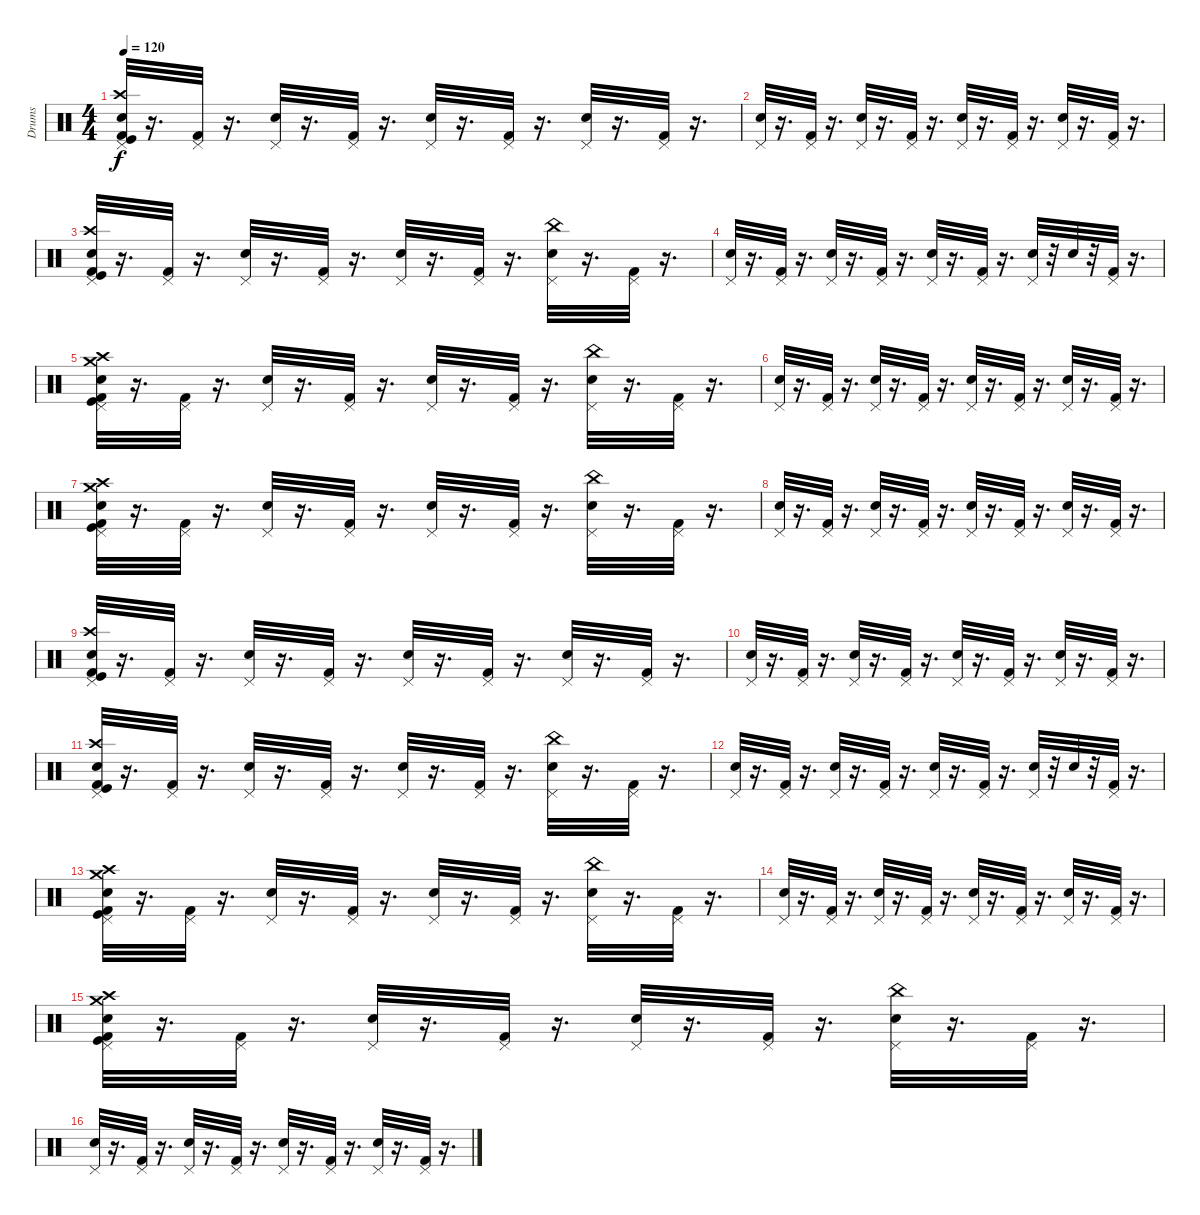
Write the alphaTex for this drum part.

\track ("Drums" "Drums") {instrument percussion}
\staff {score}
\articulation defaults
\ts (4 4)
\tempo 120
\clef neutral
\ks c
("Kick (hit) 2" "Crash high (hit)" "Pedal Hi-Hat (hit)" "Snare (hit) 2" "Kick (hit)").32{dy f} r.16{d} ("Kick (hit) 2" "Pedal Hi-Hat (hit)").32 r.16{d} ("Pedal Hi-Hat (hit)" "Snare (hit) 2").32 r.16{d} ("Pedal Hi-Hat (hit)" "Kick (hit) 2").32 r.16{d} ("Snare (hit) 2" "Pedal Hi-Hat (hit)").32 r.16{d} ("Pedal Hi-Hat (hit)" "Kick (hit) 2").32 r.16{d} ("Pedal Hi-Hat (hit)" "Snare (hit) 2").32 r.16{d} ("Pedal Hi-Hat (hit)" "Kick (hit) 2").32 r.16{d} |
("Snare (hit) 2" "Pedal Hi-Hat (hit)").32 r.16{d} ("Kick (hit) 2" "Pedal Hi-Hat (hit)").32 r.16{d} ("Pedal Hi-Hat (hit)" "Snare (hit) 2").32 r.16{d} ("Pedal Hi-Hat (hit)" "Kick (hit) 2").32 r.16{d} ("Pedal Hi-Hat (hit)" "Snare (hit) 2").32 r.16{d} ("Pedal Hi-Hat (hit)" "Kick (hit) 2").32 r.16{d} ("Pedal Hi-Hat (hit)" "Snare (hit) 2").32 r.16{d} ("Kick (hit) 2" "Pedal Hi-Hat (hit)").32 r.16{d} |
("Snare (hit) 2" "Pedal Hi-Hat (hit)" "Crash high (hit)" "Kick (hit)" "Kick (hit) 2").32 r.16{d} ("Pedal Hi-Hat (hit)" "Kick (hit) 2").32 r.16{d} ("Pedal Hi-Hat (hit)" "Snare (hit) 2").32 r.16{d} ("Pedal Hi-Hat (hit)" "Kick (hit) 2").32 r.16{d} ("Pedal Hi-Hat (hit)" "Snare (hit) 2").32 r.16{d} ("Pedal Hi-Hat (hit)" "Kick (hit) 2").32 r.16{d} ("China (hit)" "Pedal Hi-Hat (hit)" "Snare (hit) 2").32 r.16{d} ("Pedal Hi-Hat (hit)" "Kick (hit) 2").32 r.16{d} |
("Snare (hit) 2" "Pedal Hi-Hat (hit)").32 r.16{d} ("Kick (hit) 2" "Pedal Hi-Hat (hit)").32 r.16{d} ("Snare (hit) 2" "Pedal Hi-Hat (hit)").32 r.16{d} ("Pedal Hi-Hat (hit)" "Kick (hit) 2").32 r.16{d} ("Snare (hit) 2" "Pedal Hi-Hat (hit)").32 r.16{d} ("Pedal Hi-Hat (hit)" "Kick (hit) 2").32 r.16{d} ("Snare (hit) 2" "Pedal Hi-Hat (hit)").32 r.32 "Snare (hit) 2".32 r.32 ("Kick (hit) 2" "Pedal Hi-Hat (hit)").32 r.16{d} |
("Pedal Hi-Hat (hit)" "Kick (hit)" "Kick (hit) 2" "Crash medium (hit)" "Crash high (hit)" "Snare (hit) 2").32 r.16{d} ("Pedal Hi-Hat (hit)" "Kick (hit) 2").32 r.16{d} ("Snare (hit) 2" "Pedal Hi-Hat (hit)").32 r.16{d} ("Pedal Hi-Hat (hit)" "Kick (hit) 2").32 r.16{d} ("Snare (hit) 2" "Pedal Hi-Hat (hit)").32 r.16{d} ("Pedal Hi-Hat (hit)" "Kick (hit) 2").32 r.16{d} ("China (hit)" "Pedal Hi-Hat (hit)" "Snare (hit) 2").32 r.16{d} ("Pedal Hi-Hat (hit)" "Kick (hit) 2").32 r.16{d} |
("Pedal Hi-Hat (hit)" "Snare (hit) 2").32 r.16{d} ("Kick (hit) 2" "Pedal Hi-Hat (hit)").32 r.16{d} ("Pedal Hi-Hat (hit)" "Snare (hit) 2").32 r.16{d} ("Pedal Hi-Hat (hit)" "Kick (hit) 2").32 r.16{d} ("Pedal Hi-Hat (hit)" "Snare (hit) 2").32 r.16{d} ("Pedal Hi-Hat (hit)" "Kick (hit) 2").32 r.16{d} ("Pedal Hi-Hat (hit)" "Snare (hit) 2").32 r.16{d} ("Pedal Hi-Hat (hit)" "Kick (hit) 2").32 r.16{d} |
("Crash medium (hit)" "Kick (hit)" "Kick (hit) 2" "Snare (hit) 2" "Pedal Hi-Hat (hit)" "Crash high (hit)").32 r.16{d} ("Pedal Hi-Hat (hit)" "Kick (hit) 2").32 r.16{d} ("Snare (hit) 2" "Pedal Hi-Hat (hit)").32 r.16{d} ("Pedal Hi-Hat (hit)" "Kick (hit) 2").32 r.16{d} ("Pedal Hi-Hat (hit)" "Snare (hit) 2").32 r.16{d} ("Kick (hit) 2" "Pedal Hi-Hat (hit)").32 r.16{d} ("China (hit)" "Pedal Hi-Hat (hit)" "Snare (hit) 2").32 r.16{d} ("Pedal Hi-Hat (hit)" "Kick (hit) 2").32 r.16{d} |
("Snare (hit) 2" "Pedal Hi-Hat (hit)").32 r.16{d} ("Kick (hit) 2" "Pedal Hi-Hat (hit)").32 r.16{d} ("Pedal Hi-Hat (hit)" "Snare (hit) 2").32 r.16{d} ("Kick (hit) 2" "Pedal Hi-Hat (hit)").32 r.16{d} ("Pedal Hi-Hat (hit)" "Snare (hit) 2").32 r.16{d} ("Pedal Hi-Hat (hit)" "Kick (hit) 2").32 r.16{d} ("Snare (hit) 2" "Pedal Hi-Hat (hit)").32 r.16{d} ("Kick (hit) 2" "Pedal Hi-Hat (hit)").32 r.16{d} |
("Kick (hit) 2" "Crash high (hit)" "Pedal Hi-Hat (hit)" "Snare (hit) 2" "Kick (hit)").32 r.16{d} ("Kick (hit) 2" "Pedal Hi-Hat (hit)").32 r.16{d} ("Pedal Hi-Hat (hit)" "Snare (hit) 2").32 r.16{d} ("Pedal Hi-Hat (hit)" "Kick (hit) 2").32 r.16{d} ("Snare (hit) 2" "Pedal Hi-Hat (hit)").32 r.16{d} ("Pedal Hi-Hat (hit)" "Kick (hit) 2").32 r.16{d} ("Pedal Hi-Hat (hit)" "Snare (hit) 2").32 r.16{d} ("Pedal Hi-Hat (hit)" "Kick (hit) 2").32 r.16{d} |
("Snare (hit) 2" "Pedal Hi-Hat (hit)").32 r.16{d} ("Kick (hit) 2" "Pedal Hi-Hat (hit)").32 r.16{d} ("Pedal Hi-Hat (hit)" "Snare (hit) 2").32 r.16{d} ("Pedal Hi-Hat (hit)" "Kick (hit) 2").32 r.16{d} ("Pedal Hi-Hat (hit)" "Snare (hit) 2").32 r.16{d} ("Pedal Hi-Hat (hit)" "Kick (hit) 2").32 r.16{d} ("Pedal Hi-Hat (hit)" "Snare (hit) 2").32 r.16{d} ("Kick (hit) 2" "Pedal Hi-Hat (hit)").32 r.16{d} |
("Snare (hit) 2" "Pedal Hi-Hat (hit)" "Crash high (hit)" "Kick (hit)" "Kick (hit) 2").32 r.16{d} ("Pedal Hi-Hat (hit)" "Kick (hit) 2").32 r.16{d} ("Pedal Hi-Hat (hit)" "Snare (hit) 2").32 r.16{d} ("Pedal Hi-Hat (hit)" "Kick (hit) 2").32 r.16{d} ("Pedal Hi-Hat (hit)" "Snare (hit) 2").32 r.16{d} ("Pedal Hi-Hat (hit)" "Kick (hit) 2").32 r.16{d} ("China (hit)" "Pedal Hi-Hat (hit)" "Snare (hit) 2").32 r.16{d} ("Pedal Hi-Hat (hit)" "Kick (hit) 2").32 r.16{d} |
("Snare (hit) 2" "Pedal Hi-Hat (hit)").32 r.16{d} ("Kick (hit) 2" "Pedal Hi-Hat (hit)").32 r.16{d} ("Snare (hit) 2" "Pedal Hi-Hat (hit)").32 r.16{d} ("Pedal Hi-Hat (hit)" "Kick (hit) 2").32 r.16{d} ("Snare (hit) 2" "Pedal Hi-Hat (hit)").32 r.16{d} ("Pedal Hi-Hat (hit)" "Kick (hit) 2").32 r.16{d} ("Snare (hit) 2" "Pedal Hi-Hat (hit)").32 r.32 "Snare (hit) 2".32 r.32 ("Kick (hit) 2" "Pedal Hi-Hat (hit)").32 r.16{d} |
("Pedal Hi-Hat (hit)" "Kick (hit)" "Kick (hit) 2" "Crash medium (hit)" "Crash high (hit)" "Snare (hit) 2").32 r.16{d} ("Pedal Hi-Hat (hit)" "Kick (hit) 2").32 r.16{d} ("Snare (hit) 2" "Pedal Hi-Hat (hit)").32 r.16{d} ("Pedal Hi-Hat (hit)" "Kick (hit) 2").32 r.16{d} ("Snare (hit) 2" "Pedal Hi-Hat (hit)").32 r.16{d} ("Pedal Hi-Hat (hit)" "Kick (hit) 2").32 r.16{d} ("China (hit)" "Pedal Hi-Hat (hit)" "Snare (hit) 2").32 r.16{d} ("Pedal Hi-Hat (hit)" "Kick (hit) 2").32 r.16{d} |
("Pedal Hi-Hat (hit)" "Snare (hit) 2").32 r.16{d} ("Kick (hit) 2" "Pedal Hi-Hat (hit)").32 r.16{d} ("Pedal Hi-Hat (hit)" "Snare (hit) 2").32 r.16{d} ("Pedal Hi-Hat (hit)" "Kick (hit) 2").32 r.16{d} ("Pedal Hi-Hat (hit)" "Snare (hit) 2").32 r.16{d} ("Pedal Hi-Hat (hit)" "Kick (hit) 2").32 r.16{d} ("Pedal Hi-Hat (hit)" "Snare (hit) 2").32 r.16{d} ("Pedal Hi-Hat (hit)" "Kick (hit) 2").32 r.16{d} |
("Crash medium (hit)" "Kick (hit)" "Kick (hit) 2" "Snare (hit) 2" "Pedal Hi-Hat (hit)" "Crash high (hit)").32 r.16{d} ("Pedal Hi-Hat (hit)" "Kick (hit) 2").32 r.16{d} ("Snare (hit) 2" "Pedal Hi-Hat (hit)").32 r.16{d} ("Pedal Hi-Hat (hit)" "Kick (hit) 2").32 r.16{d} ("Pedal Hi-Hat (hit)" "Snare (hit) 2").32 r.16{d} ("Kick (hit) 2" "Pedal Hi-Hat (hit)").32 r.16{d} ("China (hit)" "Pedal Hi-Hat (hit)" "Snare (hit) 2").32 r.16{d} ("Pedal Hi-Hat (hit)" "Kick (hit) 2").32 r.16{d} |
("Snare (hit) 2" "Pedal Hi-Hat (hit)").32 r.16{d} ("Kick (hit) 2" "Pedal Hi-Hat (hit)").32 r.16{d} ("Pedal Hi-Hat (hit)" "Snare (hit) 2").32 r.16{d} ("Kick (hit) 2" "Pedal Hi-Hat (hit)").32 r.16{d} ("Pedal Hi-Hat (hit)" "Snare (hit) 2").32 r.16{d} ("Pedal Hi-Hat (hit)" "Kick (hit) 2").32 r.16{d} ("Snare (hit) 2" "Pedal Hi-Hat (hit)").32 r.16{d} ("Kick (hit) 2" "Pedal Hi-Hat (hit)").32 r.16{d}
